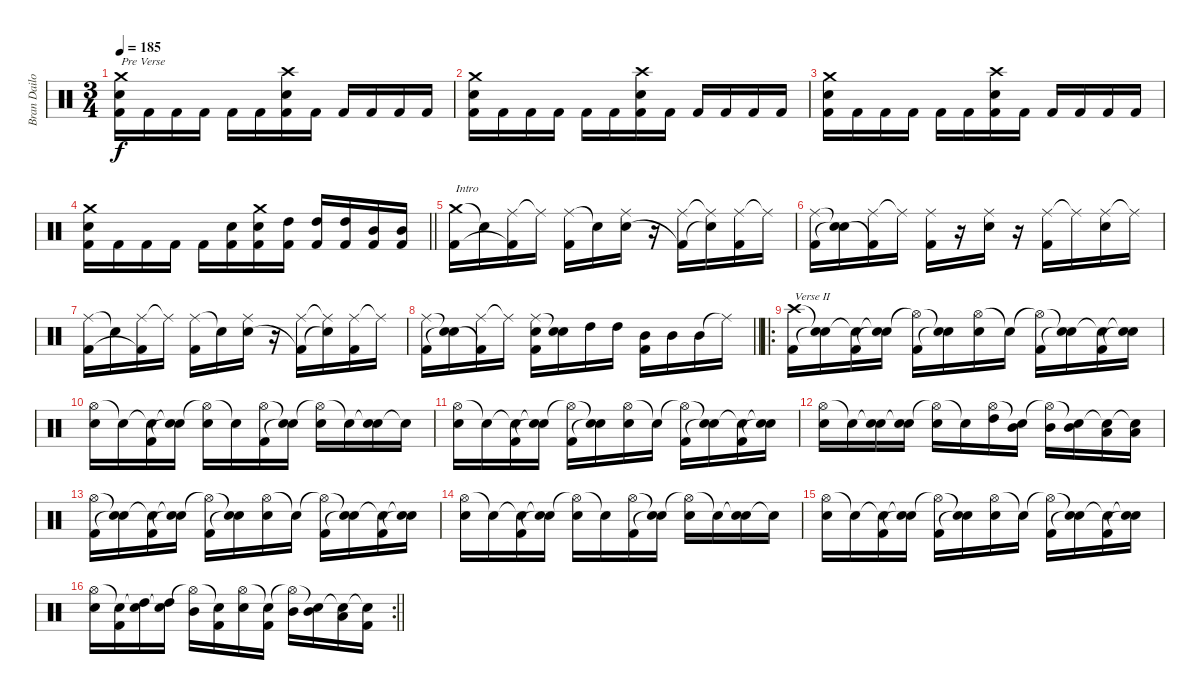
\track ("Bran Dailor" "Bran Dailo") {instrument percussion}
\staff {score}
\articulation defaults
\ts (3 4)
\tempo 185
\clef neutral
\ks c
("Crash medium (hit)" "Electric Snare (hit)" "Kick (hit) 2").16{txt "Pre Verse" dy f} "Kick (hit) 2".16 "Kick (hit) 2".16 "Kick (hit) 2".16 "Kick (hit) 2".16 "Kick (hit) 2".16 ("Crash high (hit)" "Electric Snare (hit)" "Kick (hit) 2").16 "Kick (hit) 2".16 "Kick (hit) 2".16 "Kick (hit) 2".16 "Kick (hit) 2".16 "Kick (hit) 2".16 |
("Crash medium (hit)" "Electric Snare (hit)" "Kick (hit) 2").16 "Kick (hit) 2".16 "Kick (hit) 2".16 "Kick (hit) 2".16 "Kick (hit) 2".16 "Kick (hit) 2".16 ("Crash high (hit)" "Electric Snare (hit)" "Kick (hit) 2").16 "Kick (hit) 2".16 "Kick (hit) 2".16 "Kick (hit) 2".16 "Kick (hit) 2".16 "Kick (hit) 2".16 |
("Crash medium (hit)" "Electric Snare (hit)" "Kick (hit) 2").16 "Kick (hit) 2".16 "Kick (hit) 2".16 "Kick (hit) 2".16 "Kick (hit) 2".16 "Kick (hit) 2".16 ("Crash high (hit)" "Electric Snare (hit)" "Kick (hit) 2").16 "Kick (hit) 2".16 "Kick (hit) 2".16 "Kick (hit) 2".16 "Kick (hit) 2".16 "Kick (hit) 2".16 |
\barLineRight lightlight
("Crash medium (hit)" "Electric Snare (hit)" "Kick (hit) 2").16 "Kick (hit) 2".16 "Kick (hit) 2".16 "Kick (hit) 2".16 "Kick (hit) 2".16 ("Electric Snare (hit)" "Kick (hit) 2").16 ("Crash medium (hit)" "Electric Snare (hit)" "Kick (hit) 2").16 ("High Tom (hit)" "Kick (hit) 2").16 ("High Tom (hit)" "Kick (hit) 2").16 ("High Tom (hit)" "Kick (hit) 2").16 ("Mid Tom (hit)" "Kick (hit) 2").16 ("Mid Tom (hit)" "Kick (hit) 2").16 |
("Crash medium (hit)" "Kick (hit) 2").16{txt "Intro"} "Snare (hit)"{t}.16 ("Ride (middle)" "Kick (hit) 2"{t}).16 "Ride (middle)"{t}.16 ("Ride (middle)" "Kick (hit) 2").16 "Snare (hit)"{t}.16 ("Ride (middle)" "Electric Snare (hit)").16 r.16 ("Ride (middle)" "Kick (hit) 2"{t}).16 ("Ride (middle)"{t} "Snare (hit)"{t}).16 ("Ride (middle)" "Kick (hit) 2").16 "Ride (middle)"{t}.16 |
("Ride (middle)" "Kick (hit) 2").16 ("Snare (hit)"{t} "Snare (hit)"{t}).16 ("Ride (middle)" "Kick (hit) 2"{t}).16 "Ride (middle)"{t}.16 ("Ride (middle)" "Kick (hit) 2").16 r.16 ("Ride (middle)" "Electric Snare (hit)").16 r.16 ("Ride (middle)" "Kick (hit) 2").16 "Ride (middle)"{t}.16 ("Ride (middle)" "Electric Snare (hit)").16 "Ride (middle)"{t}.16 |
("Ride (middle)" "Kick (hit) 2").16 "Snare (hit)"{t}.16 ("Ride (middle)" "Kick (hit) 2"{t}).16 "Ride (middle)"{t}.16 ("Ride (middle)" "Kick (hit) 2").16 "Snare (hit)"{t}.16 ("Ride (middle)" "Electric Snare (hit)").16 r.16 ("Ride (middle)" "Kick (hit) 2"{t}).16 ("Ride (middle)"{t} "Snare (hit)"{t}).16 ("Ride (middle)" "Kick (hit) 2").16 "Ride (middle)"{t}.16 |
\barLineRight lightlight
("Ride (middle)" "Kick (hit) 2").16 ("Snare (hit)"{t} "Snare (hit)"{t}).16 ("Ride (middle)" "Kick (hit) 2"{t}).16 "Ride (middle)"{t}.16 ("Ride (middle)" "Electric Snare (hit)" "Kick (hit) 2").16 ("Snare (hit)"{t} "Electric Snare (hit)").16 "High Tom (hit)".16 "High Tom (hit)".16 ("Mid Tom (hit)" "Kick (hit) 2").16 "Mid Tom (hit)".16 "Mid Tom (hit)".16 "Ride (middle)"{t}.16 |
\ro
("Crash high (hit)" "Kick (hit) 2").16{txt "Verse II"} ("Snare (hit)"{t} "Snare (hit)"{t}).16 ("Snare (hit)"{t} "Kick (hit) 2").16 ("Snare (hit)"{t} "Snare (hit)"{t}).16 ("Hi-Hat (open)"{t} "Kick (hit) 2").16 ("Snare (hit)"{t} "Snare (hit)"{t}).16 ("Hi-Hat (open)" "Electric Snare (hit)").16 "Snare (hit)"{t}.16 ("Hi-Hat (open)"{t} "Kick (hit) 2").16 ("Snare (hit)"{t} "Snare (hit)"{t}).16 ("Snare (hit)"{t} "Kick (hit) 2").16 ("Snare (hit)"{t} "Snare (hit)"{t}).16 |
("Hi-Hat (open)" "Electric Snare (hit)").16 "Snare (hit)"{t}.16 ("Snare (hit)"{t} "Kick (hit) 2").16 ("Snare (hit)"{t} "Snare (hit)"{t}).16 ("Hi-Hat (open)"{t} "Electric Snare (hit)").16 "Snare (hit)"{t}.16 ("Hi-Hat (open)" "Kick (hit) 2").16 ("Snare (hit)"{t} "Snare (hit)"{t}).16 ("Hi-Hat (open)"{t} "Electric Snare (hit)").16 "Snare (hit)"{t}.16 ("Snare (hit)"{t} "Electric Snare (hit)").16 "Snare (hit)"{t}.16 |
("Hi-Hat (open)" "Electric Snare (hit)").16 "Snare (hit)"{t}.16 ("Snare (hit)"{t} "Kick (hit) 2").16 ("Snare (hit)"{t} "Snare (hit)"{t}).16 ("Hi-Hat (open)"{t} "Kick (hit) 2").16 ("Snare (hit)"{t} "Snare (hit)"{t}).16 ("Hi-Hat (open)" "Electric Snare (hit)").16 "Snare (hit)"{t}.16 ("Hi-Hat (open)"{t} "Kick (hit) 2").16 ("Snare (hit)"{t} "Snare (hit)"{t}).16 ("Snare (hit)"{t} "Kick (hit) 2").16 ("Snare (hit)"{t} "Snare (hit)"{t}).16 |
("Hi-Hat (open)" "Electric Snare (hit)").16 "Snare (hit)"{t}.16 ("Snare (hit)"{t} "Electric Snare (hit)").16 ("Snare (hit)"{t} "Electric Snare (hit)").16 ("Hi-Hat (open)"{t} "Electric Snare (hit)").16 "Snare (hit)"{t}.16 ("Hi-Hat (open)" "High Tom (hit)").16 ("Snare (hit)"{t} "Mid Tom (hit)").16 ("Hi-Hat (open)"{t} "Mid Tom (hit)").16 ("Snare (hit)"{t} "Mid Tom (hit)").16 ("Snare (hit)"{t} "Low Tom (hit)").16 ("Snare (hit)"{t} "Low Tom (hit)").16 |
("Hi-Hat (open)" "Kick (hit) 2").16 ("Snare (hit)"{t} "Snare (hit)"{t}).16 ("Snare (hit)"{t} "Kick (hit) 2").16 ("Snare (hit)"{t} "Snare (hit)"{t}).16 ("Hi-Hat (open)"{t} "Kick (hit) 2").16 ("Snare (hit)"{t} "Snare (hit)"{t}).16 ("Hi-Hat (open)" "Electric Snare (hit)").16 "Snare (hit)"{t}.16 ("Hi-Hat (open)"{t} "Kick (hit) 2").16 ("Snare (hit)"{t} "Snare (hit)"{t}).16 ("Snare (hit)"{t} "Kick (hit) 2").16 ("Snare (hit)"{t} "Snare (hit)"{t}).16 |
("Hi-Hat (open)" "Electric Snare (hit)").16 "Snare (hit)"{t}.16 ("Snare (hit)"{t} "Kick (hit) 2").16 ("Snare (hit)"{t} "Snare (hit)"{t}).16 ("Hi-Hat (open)"{t} "Electric Snare (hit)").16 "Snare (hit)"{t}.16 ("Hi-Hat (open)" "Kick (hit) 2").16 ("Snare (hit)"{t} "Snare (hit)"{t}).16 ("Hi-Hat (open)"{t} "Electric Snare (hit)").16 "Snare (hit)"{t}.16 ("Snare (hit)"{t} "Electric Snare (hit)").16 "Snare (hit)"{t}.16 |
("Hi-Hat (open)" "Electric Snare (hit)").16 "Snare (hit)"{t}.16 ("Snare (hit)"{t} "Kick (hit) 2").16 ("Snare (hit)"{t} "Snare (hit)"{t}).16 ("Hi-Hat (open)"{t} "Kick (hit) 2").16 ("Snare (hit)"{t} "Snare (hit)"{t}).16 ("Hi-Hat (open)" "Electric Snare (hit)").16 "Snare (hit)"{t}.16 ("Hi-Hat (open)"{t} "Kick (hit) 2").16 ("Snare (hit)"{t} "Snare (hit)"{t}).16 ("Snare (hit)"{t} "Kick (hit) 2").16 ("Snare (hit)"{t} "Snare (hit)"{t}).16 |
\rc 2
\barLineRight lightlight
("Hi-Hat (open)" "Electric Snare (hit)").16 ("Snare (hit)"{t} "Kick (hit) 2").16 ("Snare (hit)"{t} "High Tom (hit)").16 ("Snare (hit)"{t} "High Tom (hit)").16 ("Hi-Hat (open)"{t} "Mid Tom (hit)").16 ("Snare (hit)"{t} "Kick (hit) 2").16 ("Hi-Hat (open)" "Electric Snare (hit)").16 ("Snare (hit)"{t} "Kick (hit) 2").16 ("Hi-Hat (open)"{t} "Mid Tom (hit)").16 ("Snare (hit)"{t} "Mid Tom (hit)").16 ("Snare (hit)"{t} "Low Tom (hit)").16 ("Snare (hit)"{t} "Kick (hit) 2").16
